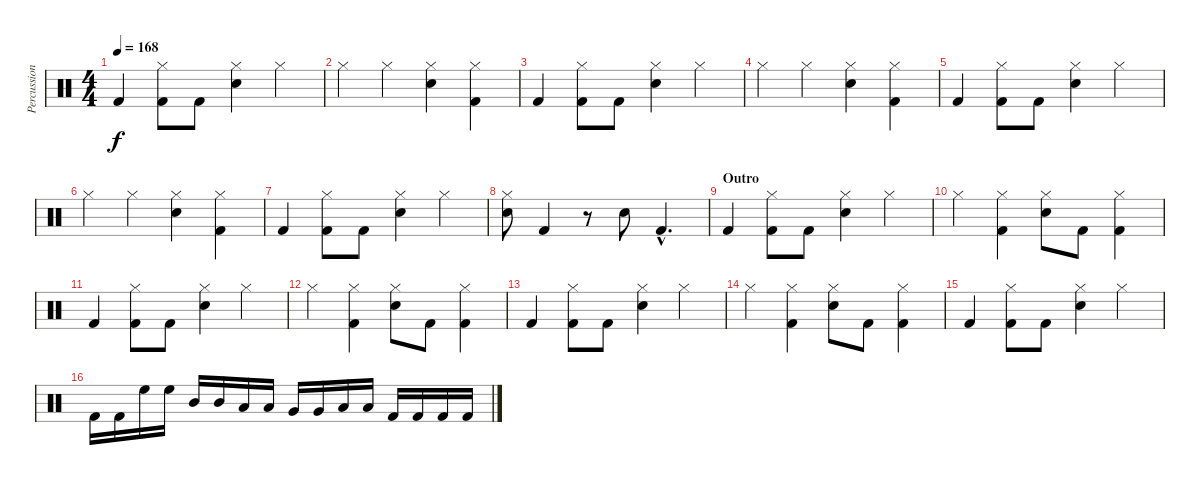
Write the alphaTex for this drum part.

\track ("Percussion" "Percussion") {instrument percussion}
\staff {score}
\articulation defaults
\ts (4 4)
\tempo 168
\clef neutral
\ks c "Kick (hit) 2".4{dy f}
("Hi-Hat (closed)" "Kick (hit) 2").8 "Kick (hit) 2".8 ("Hi-Hat (closed)" "Snare (hit) 2").4 "Hi-Hat (closed)".4 |
"Hi-Hat (closed)".4 "Hi-Hat (closed)".4 ("Hi-Hat (closed)" "Snare (hit) 2").4 ("Hi-Hat (closed)" "Kick (hit) 2").4 |
"Kick (hit) 2".4 ("Hi-Hat (closed)" "Kick (hit) 2").8 "Kick (hit) 2".8 ("Hi-Hat (closed)" "Snare (hit) 2").4 "Hi-Hat (closed)".4 |
"Hi-Hat (closed)".4 "Hi-Hat (closed)".4 ("Hi-Hat (closed)" "Snare (hit) 2").4 ("Hi-Hat (closed)" "Kick (hit) 2").4 |
"Kick (hit) 2".4 ("Hi-Hat (closed)" "Kick (hit) 2").8 "Kick (hit) 2".8 ("Hi-Hat (closed)" "Snare (hit) 2").4 "Hi-Hat (closed)".4 |
"Hi-Hat (closed)".4 "Hi-Hat (closed)".4 ("Hi-Hat (closed)" "Snare (hit) 2").4 ("Hi-Hat (closed)" "Kick (hit) 2").4 |
"Kick (hit) 2".4 ("Hi-Hat (closed)" "Kick (hit) 2").8 "Kick (hit) 2".8 ("Hi-Hat (closed)" "Snare (hit) 2").4 "Hi-Hat (closed)".4 |
("Hi-Hat (closed)" "Snare (hit) 2").8 "Kick (hit) 2".4 r.8 "Snare (hit) 2".8 "Kick (hit) 2"{hac}.4{d} |
\section ("" "Outro")
"Kick (hit) 2".4 ("Hi-Hat (closed)" "Kick (hit) 2").8 "Kick (hit) 2".8 ("Hi-Hat (closed)" "Snare (hit) 2").4 "Hi-Hat (closed)".4 |
"Hi-Hat (closed)".4 ("Hi-Hat (closed)" "Kick (hit) 2").4 ("Hi-Hat (closed)" "Snare (hit) 2").8 "Kick (hit) 2".8 ("Hi-Hat (closed)" "Kick (hit) 2").4 |
"Kick (hit) 2".4 ("Hi-Hat (closed)" "Kick (hit) 2").8 "Kick (hit) 2".8 ("Hi-Hat (closed)" "Snare (hit) 2").4 "Hi-Hat (closed)".4 |
"Hi-Hat (closed)".4 ("Hi-Hat (closed)" "Kick (hit) 2").4 ("Hi-Hat (closed)" "Snare (hit) 2").8 "Kick (hit) 2".8 ("Hi-Hat (closed)" "Kick (hit) 2").4 |
"Kick (hit) 2".4 ("Hi-Hat (closed)" "Kick (hit) 2").8 "Kick (hit) 2".8 ("Hi-Hat (closed)" "Snare (hit) 2").4 "Hi-Hat (closed)".4 |
"Hi-Hat (closed)".4 ("Hi-Hat (closed)" "Kick (hit) 2").4 ("Hi-Hat (closed)" "Snare (hit) 2").8 "Kick (hit) 2".8 ("Hi-Hat (closed)" "Kick (hit) 2").4 |
"Kick (hit) 2".4 ("Hi-Hat (closed)" "Kick (hit) 2").8 "Kick (hit) 2".8 ("Hi-Hat (closed)" "Snare (hit) 2").4 "Hi-Hat (closed)".4 |
"Kick (hit) 2".16 "Kick (hit) 2".16 "High Floor Tom (hit)".16 "High Floor Tom (hit)".16 "Mid Tom (hit)".16 "Mid Tom (hit)".16 "Low Tom (hit)".16 "Low Tom (hit)".16 "Very Low Tom (hit)".16 "Very Low Tom (hit)".16 "Low Floor Tom (hit)".16 "Low Floor Tom (hit)".16 "Kick (hit) 2".16 "Kick (hit) 2".16 "Kick (hit) 2".16 "Kick (hit) 2".16
